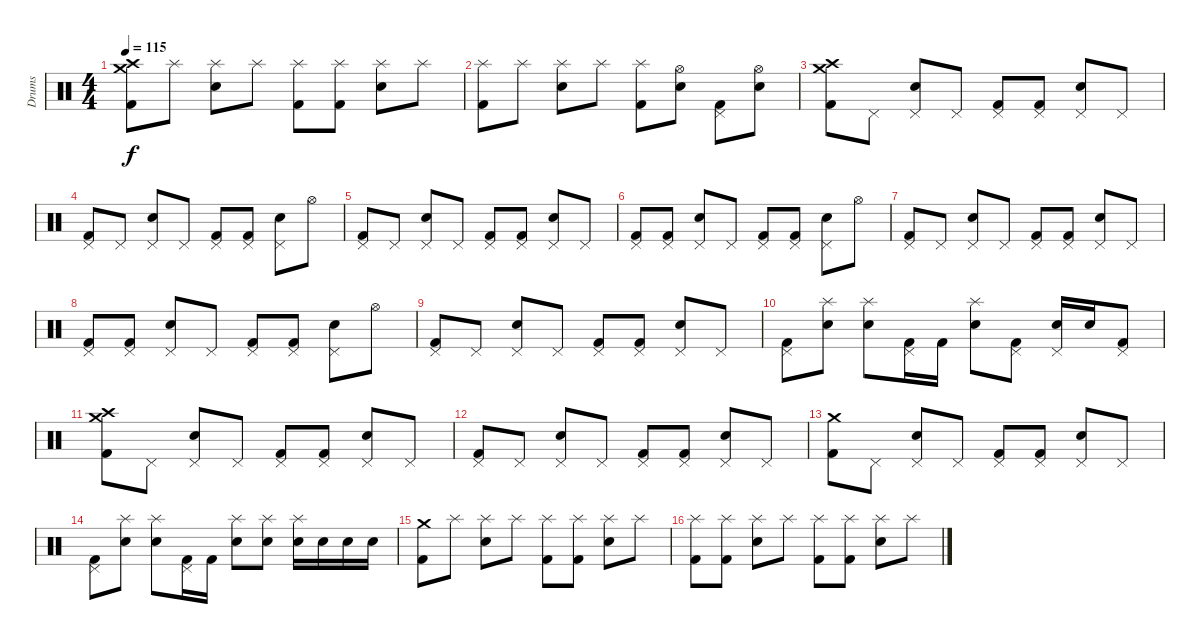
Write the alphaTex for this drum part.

\track ("Drums" "Drums") {instrument percussion}
\staff {score}
\articulation defaults
\ts (4 4)
\tempo 115
\clef neutral
\ks c
("Kick (hit) 2" "Crash high (hit)" "Crash medium (hit)").8{dy f} "Splash (hit)".8 ("Splash (hit)" "Snare (hit) 2").8 "Splash (hit)".8 ("Kick (hit) 2" "Splash (hit)").8 ("Kick (hit) 2" "Splash (hit)").8 ("Snare (hit) 2" "Splash (hit)").8 "Splash (hit)".8 |
("Kick (hit) 2" "Splash (hit)").8 "Splash (hit)".8 ("Snare (hit) 2" "Splash (hit)").8 "Splash (hit)".8 ("Kick (hit) 2" "Splash (hit)").8 ("Hi-Hat (open)" "Snare (hit) 2").8 ("Pedal Hi-Hat (hit)" "Kick (hit) 2").8 ("Hi-Hat (open)" "Snare (hit) 2").8 |
("Kick (hit) 2" "Crash high (hit)" "Crash medium (hit)").8 "Pedal Hi-Hat (hit)".8 ("Pedal Hi-Hat (hit)" "Snare (hit) 2").8 "Pedal Hi-Hat (hit)".8 ("Pedal Hi-Hat (hit)" "Kick (hit) 2").8 ("Pedal Hi-Hat (hit)" "Kick (hit) 2").8 ("Pedal Hi-Hat (hit)" "Snare (hit) 2").8 "Pedal Hi-Hat (hit)".8 |
("Pedal Hi-Hat (hit)" "Kick (hit) 2").8 "Pedal Hi-Hat (hit)".8 ("Pedal Hi-Hat (hit)" "Snare (hit) 2").8 "Pedal Hi-Hat (hit)".8 ("Pedal Hi-Hat (hit)" "Kick (hit) 2").8 ("Pedal Hi-Hat (hit)" "Kick (hit) 2").8 ("Pedal Hi-Hat (hit)" "Snare (hit) 2").8 "Hi-Hat (open)".8 |
("Kick (hit) 2" "Pedal Hi-Hat (hit)").8 "Pedal Hi-Hat (hit)".8 ("Snare (hit) 2" "Pedal Hi-Hat (hit)").8 "Pedal Hi-Hat (hit)".8 ("Pedal Hi-Hat (hit)" "Kick (hit) 2").8 ("Pedal Hi-Hat (hit)" "Kick (hit) 2").8 ("Snare (hit) 2" "Pedal Hi-Hat (hit)").8 "Pedal Hi-Hat (hit)".8 |
("Pedal Hi-Hat (hit)" "Kick (hit) 2").8 ("Pedal Hi-Hat (hit)" "Kick (hit) 2").8 ("Snare (hit) 2" "Pedal Hi-Hat (hit)").8 "Pedal Hi-Hat (hit)".8 ("Pedal Hi-Hat (hit)" "Kick (hit) 2").8 ("Kick (hit) 2" "Pedal Hi-Hat (hit)").8 ("Snare (hit) 2" "Pedal Hi-Hat (hit)").8 "Hi-Hat (open)".8 |
("Kick (hit) 2" "Pedal Hi-Hat (hit)").8 "Pedal Hi-Hat (hit)".8 ("Snare (hit) 2" "Pedal Hi-Hat (hit)").8 "Pedal Hi-Hat (hit)".8 ("Pedal Hi-Hat (hit)" "Kick (hit) 2").8 ("Pedal Hi-Hat (hit)" "Kick (hit) 2").8 ("Snare (hit) 2" "Pedal Hi-Hat (hit)").8 "Pedal Hi-Hat (hit)".8 |
("Pedal Hi-Hat (hit)" "Kick (hit) 2").8 ("Pedal Hi-Hat (hit)" "Kick (hit) 2").8 ("Snare (hit) 2" "Pedal Hi-Hat (hit)").8 "Pedal Hi-Hat (hit)".8 ("Pedal Hi-Hat (hit)" "Kick (hit) 2").8 ("Pedal Hi-Hat (hit)" "Kick (hit) 2").8 ("Pedal Hi-Hat (hit)" "Snare (hit) 2").8 "Hi-Hat (open)".8 |
("Pedal Hi-Hat (hit)" "Kick (hit) 2").8 "Pedal Hi-Hat (hit)".8 ("Pedal Hi-Hat (hit)" "Snare (hit) 2").8 "Pedal Hi-Hat (hit)".8 ("Pedal Hi-Hat (hit)" "Kick (hit) 2").8 ("Pedal Hi-Hat (hit)" "Kick (hit) 2").8 ("Pedal Hi-Hat (hit)" "Snare (hit) 2").8 "Pedal Hi-Hat (hit)".8 |
("Pedal Hi-Hat (hit)" "Kick (hit) 2").8 ("Splash (hit)" "Snare (hit) 2").8 ("Splash (hit)" "Snare (hit) 2").8 ("Pedal Hi-Hat (hit)" "Kick (hit) 2").16 "Kick (hit) 2".16 ("Splash (hit)" "Snare (hit) 2").8 ("Pedal Hi-Hat (hit)" "Kick (hit) 2").8 ("Pedal Hi-Hat (hit)" "Snare (hit) 2").16 "Snare (hit) 2".16 ("Pedal Hi-Hat (hit)" "Kick (hit) 2").8 |
("Kick (hit) 2" "Crash high (hit)" "Crash medium (hit)").8 "Pedal Hi-Hat (hit)".8 ("Pedal Hi-Hat (hit)" "Snare (hit) 2").8 "Pedal Hi-Hat (hit)".8 ("Pedal Hi-Hat (hit)" "Kick (hit) 2").8 ("Pedal Hi-Hat (hit)" "Kick (hit) 2").8 ("Pedal Hi-Hat (hit)" "Snare (hit) 2").8 "Pedal Hi-Hat (hit)".8 |
("Pedal Hi-Hat (hit)" "Kick (hit) 2").8 "Pedal Hi-Hat (hit)".8 ("Pedal Hi-Hat (hit)" "Snare (hit) 2").8 "Pedal Hi-Hat (hit)".8 ("Pedal Hi-Hat (hit)" "Kick (hit) 2").8 ("Pedal Hi-Hat (hit)" "Kick (hit) 2").8 ("Pedal Hi-Hat (hit)" "Snare (hit) 2").8 "Pedal Hi-Hat (hit)".8 |
("Kick (hit) 2" "Crash medium (hit)").8 "Pedal Hi-Hat (hit)".8 ("Snare (hit) 2" "Pedal Hi-Hat (hit)").8 "Pedal Hi-Hat (hit)".8 ("Pedal Hi-Hat (hit)" "Kick (hit) 2").8 ("Pedal Hi-Hat (hit)" "Kick (hit) 2").8 ("Snare (hit) 2" "Pedal Hi-Hat (hit)").8 "Pedal Hi-Hat (hit)".8 |
("Pedal Hi-Hat (hit)" "Kick (hit) 2").8 ("Splash (hit)" "Snare (hit) 2").8 ("Splash (hit)" "Snare (hit) 2").8 ("Pedal Hi-Hat (hit)" "Kick (hit) 2").16 "Kick (hit) 2".16 ("Splash (hit)" "Snare (hit) 2").8 ("Splash (hit)" "Snare (hit) 2").8 ("Splash (hit)" "Snare (hit) 2").16 "Snare (hit) 2".16 "Snare (hit) 2".16 "Snare (hit) 2".16 |
("Kick (hit) 2" "Crash medium (hit)").8 "Splash (hit)".8 ("Splash (hit)" "Snare (hit) 2").8 "Splash (hit)".8 ("Splash (hit)" "Kick (hit) 2").8 ("Splash (hit)" "Kick (hit) 2").8 ("Splash (hit)" "Snare (hit) 2").8 "Splash (hit)".8 |
("Splash (hit)" "Kick (hit) 2").8 ("Splash (hit)" "Kick (hit) 2").8 ("Splash (hit)" "Snare (hit) 2").8 "Splash (hit)".8 ("Splash (hit)" "Kick (hit) 2").8 ("Splash (hit)" "Kick (hit) 2").8 ("Splash (hit)" "Snare (hit) 2").8 "Splash (hit)".8
